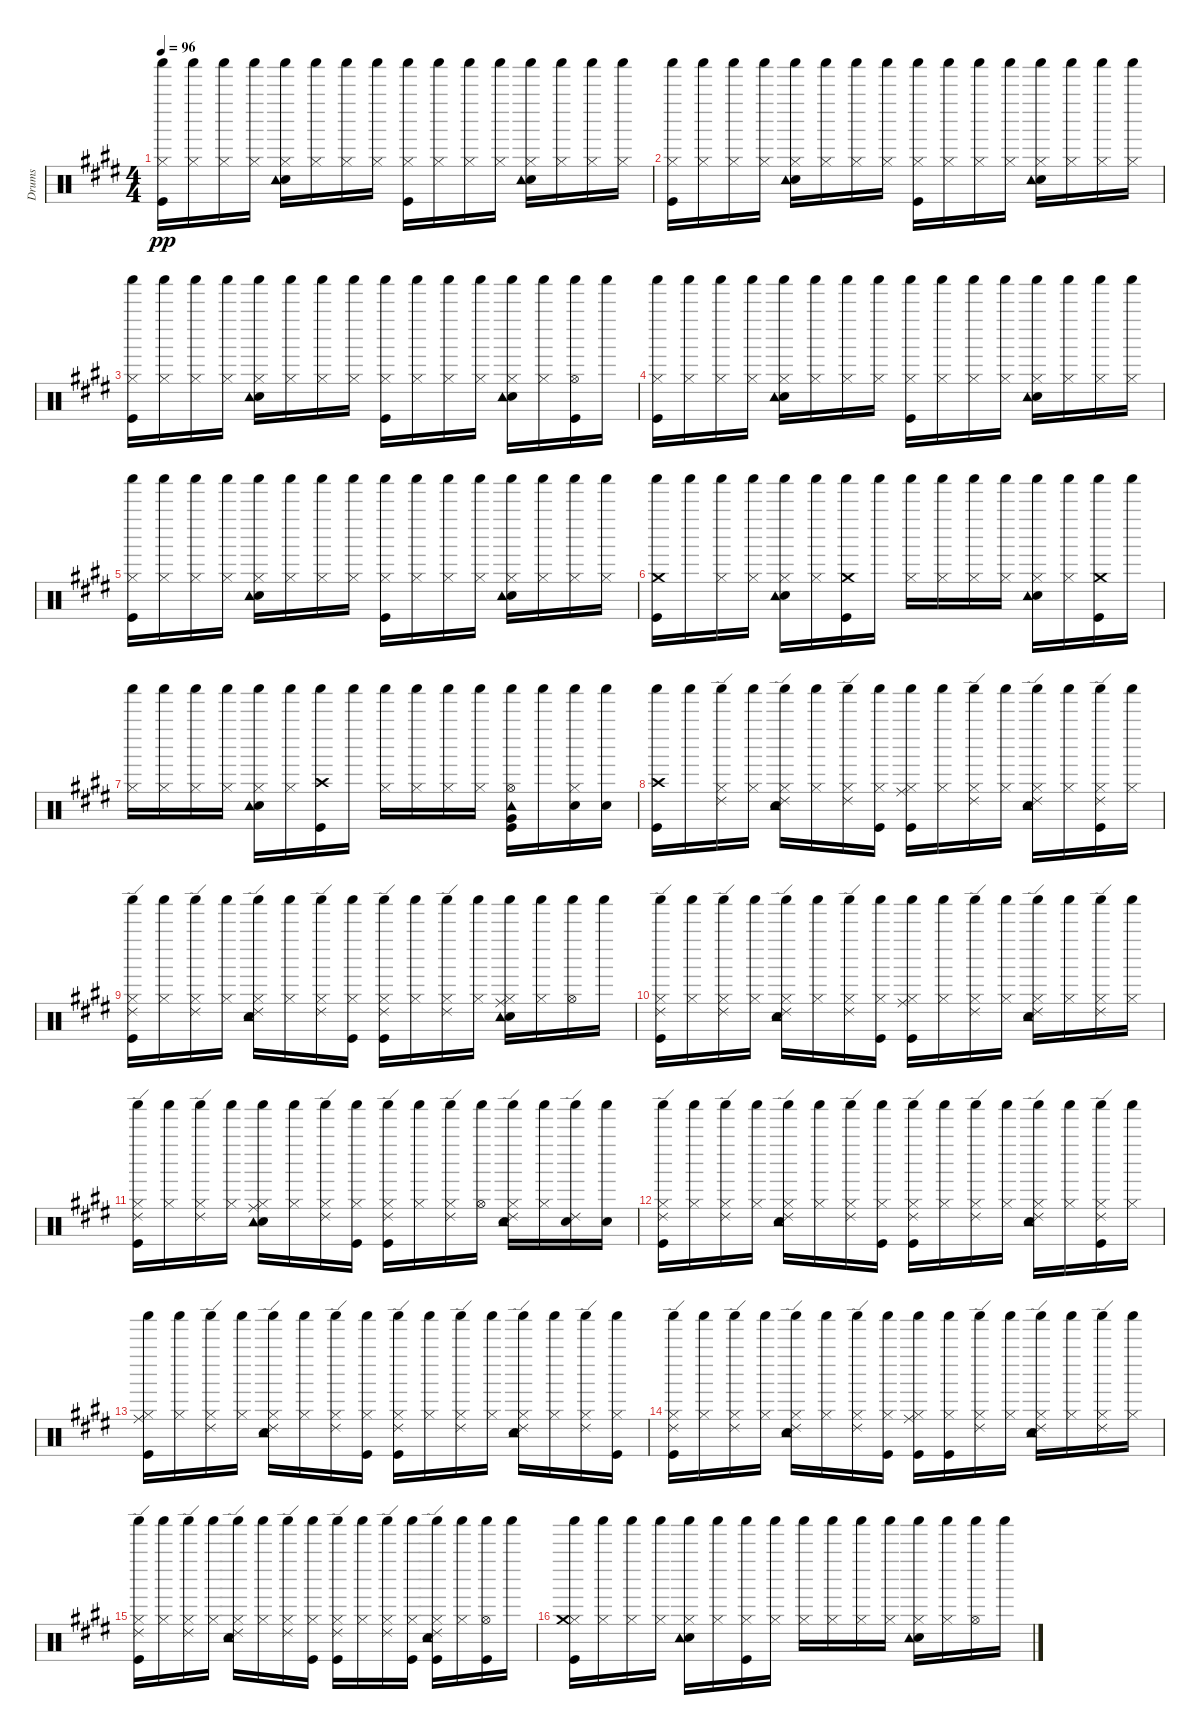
\track ("Drums" "Drums") {instrument percussion}
\staff {score}
\articulation defaults
\ts (4 4)
\tempo 96
\clef neutral
\ks e
("Kick (hit)" "Hi-Hat (closed)" "Shaker (hit)").16{dy pp} ("Hi-Hat (closed)" "Shaker (hit)").16 ("Hi-Hat (closed)" "Shaker (hit)").16 ("Hi-Hat (closed)" "Shaker (hit)").16 ("Electric Snare (hit)" "Hi-Hat (closed)" "Tambourine (hit)" "Shaker (hit)").16 ("Hi-Hat (closed)" "Shaker (hit)").16 ("Hi-Hat (closed)" "Shaker (hit)").16 ("Hi-Hat (closed)" "Shaker (hit)").16 ("Kick (hit)" "Hi-Hat (closed)" "Shaker (hit)").16 ("Hi-Hat (closed)" "Shaker (hit)").16 ("Hi-Hat (closed)" "Shaker (hit)").16 ("Hi-Hat (closed)" "Shaker (hit)").16 ("Electric Snare (hit)" "Hi-Hat (closed)" "Tambourine (hit)" "Shaker (hit)").16 ("Hi-Hat (closed)" "Shaker (hit)").16 ("Hi-Hat (closed)" "Shaker (hit)").16 ("Hi-Hat (closed)" "Shaker (hit)").16 |
("Kick (hit)" "Hi-Hat (closed)" "Shaker (hit)").16 ("Hi-Hat (closed)" "Shaker (hit)").16 ("Hi-Hat (closed)" "Shaker (hit)").16 ("Hi-Hat (closed)" "Shaker (hit)").16 ("Electric Snare (hit)" "Hi-Hat (closed)" "Tambourine (hit)" "Shaker (hit)").16 ("Hi-Hat (closed)" "Shaker (hit)").16 ("Hi-Hat (closed)" "Shaker (hit)").16 ("Hi-Hat (closed)" "Shaker (hit)").16 ("Kick (hit)" "Hi-Hat (closed)" "Shaker (hit)").16 ("Hi-Hat (closed)" "Shaker (hit)").16 ("Hi-Hat (closed)" "Shaker (hit)").16 ("Hi-Hat (closed)" "Shaker (hit)").16 ("Electric Snare (hit)" "Hi-Hat (closed)" "Tambourine (hit)" "Shaker (hit)").16 ("Hi-Hat (closed)" "Shaker (hit)").16 ("Hi-Hat (closed)" "Shaker (hit)").16 ("Hi-Hat (closed)" "Shaker (hit)").16 |
("Kick (hit)" "Hi-Hat (closed)" "Shaker (hit)").16 ("Hi-Hat (closed)" "Shaker (hit)").16 ("Hi-Hat (closed)" "Shaker (hit)").16 ("Hi-Hat (closed)" "Shaker (hit)").16 ("Electric Snare (hit)" "Hi-Hat (closed)" "Tambourine (hit)" "Shaker (hit)").16 ("Hi-Hat (closed)" "Shaker (hit)").16 ("Hi-Hat (closed)" "Shaker (hit)").16 ("Hi-Hat (closed)" "Shaker (hit)").16 ("Kick (hit)" "Hi-Hat (closed)" "Shaker (hit)").16 ("Hi-Hat (closed)" "Shaker (hit)").16 ("Hi-Hat (closed)" "Shaker (hit)").16 ("Hi-Hat (closed)" "Shaker (hit)").16 ("Electric Snare (hit)" "Hi-Hat (closed)" "Tambourine (hit)" "Shaker (hit)").16 ("Hi-Hat (closed)" "Shaker (hit)").16 ("Kick (hit)" "Hi-Hat (open)" "Shaker (hit)").16 "Shaker (hit)".16 |
("Kick (hit)" "Hi-Hat (closed)" "Shaker (hit)").16 ("Hi-Hat (closed)" "Shaker (hit)").16 ("Hi-Hat (closed)" "Shaker (hit)").16 ("Hi-Hat (closed)" "Shaker (hit)").16 ("Electric Snare (hit)" "Hi-Hat (closed)" "Tambourine (hit)" "Shaker (hit)").16 ("Hi-Hat (closed)" "Shaker (hit)").16 ("Hi-Hat (closed)" "Shaker (hit)").16 ("Hi-Hat (closed)" "Shaker (hit)").16 ("Kick (hit)" "Hi-Hat (closed)" "Shaker (hit)").16 ("Hi-Hat (closed)" "Shaker (hit)").16 ("Hi-Hat (closed)" "Shaker (hit)").16 ("Hi-Hat (closed)" "Shaker (hit)").16 ("Electric Snare (hit)" "Hi-Hat (closed)" "Tambourine (hit)" "Shaker (hit)").16 ("Hi-Hat (closed)" "Shaker (hit)").16 ("Hi-Hat (closed)" "Shaker (hit)").16 ("Hi-Hat (closed)" "Shaker (hit)").16 |
("Kick (hit)" "Hi-Hat (closed)" "Shaker (hit)").16 ("Hi-Hat (closed)" "Shaker (hit)").16 ("Hi-Hat (closed)" "Shaker (hit)").16 ("Hi-Hat (closed)" "Shaker (hit)").16 ("Electric Snare (hit)" "Hi-Hat (closed)" "Tambourine (hit)" "Shaker (hit)").16 ("Hi-Hat (closed)" "Shaker (hit)").16 ("Hi-Hat (closed)" "Shaker (hit)").16 ("Hi-Hat (closed)" "Shaker (hit)").16 ("Kick (hit)" "Hi-Hat (closed)" "Shaker (hit)").16 ("Hi-Hat (closed)" "Shaker (hit)").16 ("Hi-Hat (closed)" "Shaker (hit)").16 ("Hi-Hat (closed)" "Shaker (hit)").16 ("Electric Snare (hit)" "Hi-Hat (closed)" "Tambourine (hit)" "Shaker (hit)").16 ("Hi-Hat (closed)" "Shaker (hit)").16 ("Hi-Hat (closed)" "Shaker (hit)").16 ("Hi-Hat (closed)" "Shaker (hit)").16 |
("Kick (hit)" "Crash medium (hit)" "Shaker (hit)").16 "Shaker (hit)".16 ("Hi-Hat (closed)" "Shaker (hit)").16 ("Hi-Hat (closed)" "Shaker (hit)").16 ("Electric Snare (hit)" "Hi-Hat (closed)" "Tambourine (hit)" "Shaker (hit)").16 ("Hi-Hat (closed)" "Shaker (hit)").16 ("Kick (hit)" "Crash medium (hit)" "Shaker (hit)").16 "Shaker (hit)".16 ("Hi-Hat (closed)" "Shaker (hit)").16 ("Hi-Hat (closed)" "Shaker (hit)").16 ("Hi-Hat (closed)" "Shaker (hit)").16 ("Hi-Hat (closed)" "Shaker (hit)").16 ("Electric Snare (hit)" "Hi-Hat (closed)" "Tambourine (hit)" "Shaker (hit)").16 ("Hi-Hat (closed)" "Shaker (hit)").16 ("Kick (hit)" "Crash medium (hit)" "Shaker (hit)").16 "Shaker (hit)".16 |
("Hi-Hat (closed)" "Shaker (hit)").16 ("Hi-Hat (closed)" "Shaker (hit)").16 ("Hi-Hat (closed)" "Shaker (hit)").16 ("Hi-Hat (closed)" "Shaker (hit)").16 ("Electric Snare (hit)" "Hi-Hat (closed)" "Tambourine (hit)" "Shaker (hit)").16 ("Hi-Hat (closed)" "Shaker (hit)").16 ("Kick (hit)" "Crash high (hit)" "Shaker (hit)").16 "Shaker (hit)".16 ("Hi-Hat (closed)" "Shaker (hit)").16 ("Hi-Hat (closed)" "Shaker (hit)").16 ("Hi-Hat (closed)" "Shaker (hit)").16 ("Hi-Hat (closed)" "Shaker (hit)").16 ("Kick (hit)" "Very Low Tom (hit)" "Hi-Hat (open)" "Tambourine (hit)" "Shaker (hit)").16 "Shaker (hit)".16 ("Electric Snare (hit)" "Hi-Hat (closed)" "Shaker (hit)").16 ("Electric Snare (hit)" "Shaker (hit)").16 |
("Kick (hit)" "Crash high (hit)" "Shaker (hit)").16 "Shaker (hit)".16 ("Hi-Hat (closed)" "Ride (edge) 2" "Shaker (hit)").16 ("Hi-Hat (closed)" "Shaker (hit)").16 ("Electric Snare (hit)" "Hi-Hat (closed)" "Tambourine (hit)" "Ride (edge) 2" "Shaker (hit)").16 ("Hi-Hat (closed)" "Shaker (hit)").16 ("Hi-Hat (closed)" "Ride (edge) 2" "Shaker (hit)").16 ("Kick (hit)" "Hi-Hat (closed)" "Shaker (hit)").16 ("Kick (hit)" "Hi-Hat (closed)" "Ride (middle)" "Shaker (hit)").16 ("Hi-Hat (closed)" "Shaker (hit)").16 ("Hi-Hat (closed)" "Ride (edge) 2" "Shaker (hit)").16 ("Hi-Hat (closed)" "Shaker (hit)").16 ("Electric Snare (hit)" "Hi-Hat (closed)" "Tambourine (hit)" "Ride (edge) 2" "Shaker (hit)").16 ("Hi-Hat (closed)" "Shaker (hit)").16 ("Kick (hit)" "Hi-Hat (closed)" "Ride (edge) 2" "Shaker (hit)").16 ("Hi-Hat (closed)" "Shaker (hit)").16 |
("Kick (hit)" "Hi-Hat (closed)" "Ride (edge) 2" "Shaker (hit)").16 ("Hi-Hat (closed)" "Shaker (hit)").16 ("Hi-Hat (closed)" "Ride (edge) 2" "Shaker (hit)").16 ("Hi-Hat (closed)" "Shaker (hit)").16 ("Electric Snare (hit)" "Hi-Hat (closed)" "Tambourine (hit)" "Ride (edge) 2" "Shaker (hit)").16 ("Hi-Hat (closed)" "Shaker (hit)").16 ("Hi-Hat (closed)" "Ride (edge) 2" "Shaker (hit)").16 ("Kick (hit)" "Hi-Hat (closed)" "Shaker (hit)").16 ("Kick (hit)" "Hi-Hat (closed)" "Ride (edge) 2" "Shaker (hit)").16 ("Hi-Hat (closed)" "Shaker (hit)").16 ("Hi-Hat (closed)" "Ride (edge) 2" "Shaker (hit)").16 ("Hi-Hat (closed)" "Shaker (hit)").16 ("Electric Snare (hit)" "Hi-Hat (closed)" "Ride (middle)" "Tambourine (hit)" "Shaker (hit)").16 ("Hi-Hat (closed)" "Shaker (hit)").16 ("Hi-Hat (open)" "Shaker (hit)").16 "Shaker (hit)".16 |
("Kick (hit)" "Hi-Hat (closed)" "Ride (edge) 2" "Shaker (hit)").16 ("Hi-Hat (closed)" "Shaker (hit)").16 ("Hi-Hat (closed)" "Ride (edge) 2" "Shaker (hit)").16 ("Hi-Hat (closed)" "Shaker (hit)").16 ("Electric Snare (hit)" "Hi-Hat (closed)" "Tambourine (hit)" "Ride (edge) 2" "Shaker (hit)").16 ("Hi-Hat (closed)" "Shaker (hit)").16 ("Hi-Hat (closed)" "Ride (edge) 2" "Shaker (hit)").16 ("Kick (hit)" "Hi-Hat (closed)" "Shaker (hit)").16 ("Kick (hit)" "Hi-Hat (closed)" "Ride (middle)" "Shaker (hit)").16 ("Hi-Hat (closed)" "Shaker (hit)").16 ("Hi-Hat (closed)" "Ride (edge) 2" "Shaker (hit)").16 ("Hi-Hat (closed)" "Shaker (hit)").16 ("Electric Snare (hit)" "Hi-Hat (closed)" "Tambourine (hit)" "Ride (edge) 2" "Shaker (hit)").16 ("Hi-Hat (closed)" "Shaker (hit)").16 ("Hi-Hat (closed)" "Ride (edge) 2" "Shaker (hit)").16 ("Hi-Hat (closed)" "Shaker (hit)").16 |
("Kick (hit)" "Hi-Hat (closed)" "Ride (edge) 2" "Shaker (hit)").16 ("Hi-Hat (closed)" "Shaker (hit)").16 ("Hi-Hat (closed)" "Ride (edge) 2" "Shaker (hit)").16 ("Hi-Hat (closed)" "Shaker (hit)").16 ("Electric Snare (hit)" "Hi-Hat (closed)" "Ride (middle)" "Tambourine (hit)" "Shaker (hit)").16 ("Hi-Hat (closed)" "Shaker (hit)").16 ("Hi-Hat (closed)" "Ride (edge) 2" "Shaker (hit)").16 ("Kick (hit)" "Hi-Hat (closed)" "Shaker (hit)").16 ("Kick (hit)" "Hi-Hat (closed)" "Ride (edge) 2" "Shaker (hit)").16 ("Hi-Hat (closed)" "Shaker (hit)").16 ("Hi-Hat (closed)" "Ride (edge) 2" "Shaker (hit)").16 ("Hi-Hat (open)" "Shaker (hit)").16 ("Electric Snare (hit)" "Hi-Hat (closed)" "Tambourine (hit)" "Ride (edge) 2" "Shaker (hit)").16 ("Hi-Hat (closed)" "Shaker (hit)").16 ("Electric Snare (hit)" "Ride (edge) 2" "Shaker (hit)").16 ("Electric Snare (hit)" "Shaker (hit)").16 |
("Kick (hit)" "Hi-Hat (closed)" "Ride (edge) 2" "Shaker (hit)").16 ("Hi-Hat (closed)" "Shaker (hit)").16 ("Hi-Hat (closed)" "Ride (edge) 2" "Shaker (hit)").16 ("Hi-Hat (closed)" "Shaker (hit)").16 ("Electric Snare (hit)" "Hi-Hat (closed)" "Tambourine (hit)" "Ride (edge) 2" "Shaker (hit)").16 ("Hi-Hat (closed)" "Shaker (hit)").16 ("Hi-Hat (closed)" "Ride (edge) 2" "Shaker (hit)").16 ("Kick (hit)" "Hi-Hat (closed)" "Shaker (hit)").16 ("Kick (hit)" "Hi-Hat (closed)" "Ride (edge) 2" "Shaker (hit)").16 ("Hi-Hat (closed)" "Shaker (hit)").16 ("Hi-Hat (closed)" "Ride (edge) 2" "Shaker (hit)").16 ("Hi-Hat (closed)" "Shaker (hit)").16 ("Electric Snare (hit)" "Hi-Hat (closed)" "Tambourine (hit)" "Ride (edge) 2" "Shaker (hit)").16 ("Hi-Hat (closed)" "Shaker (hit)").16 ("Kick (hit)" "Hi-Hat (closed)" "Ride (edge) 2" "Shaker (hit)").16 ("Hi-Hat (closed)" "Shaker (hit)").16 |
("Kick (hit)" "Hi-Hat (closed)" "Ride (middle)" "Shaker (hit)").16 ("Hi-Hat (closed)" "Shaker (hit)").16 ("Hi-Hat (closed)" "Ride (edge) 2" "Shaker (hit)").16 ("Hi-Hat (closed)" "Shaker (hit)").16 ("Electric Snare (hit)" "Hi-Hat (closed)" "Tambourine (hit)" "Ride (edge) 2" "Shaker (hit)").16 ("Hi-Hat (closed)" "Shaker (hit)").16 ("Hi-Hat (closed)" "Ride (edge) 2" "Shaker (hit)").16 ("Kick (hit)" "Hi-Hat (closed)" "Shaker (hit)").16 ("Kick (hit)" "Hi-Hat (closed)" "Ride (edge) 2" "Shaker (hit)").16 ("Hi-Hat (closed)" "Shaker (hit)").16 ("Hi-Hat (closed)" "Ride (edge) 2" "Shaker (hit)").16 ("Hi-Hat (closed)" "Shaker (hit)").16 ("Electric Snare (hit)" "Hi-Hat (closed)" "Tambourine (hit)" "Ride (edge) 2" "Shaker (hit)").16 ("Hi-Hat (closed)" "Shaker (hit)").16 ("Hi-Hat (closed)" "Ride (edge) 2" "Shaker (hit)").16 ("Kick (hit)" "Hi-Hat (closed)" "Shaker (hit)").16 |
("Kick (hit)" "Hi-Hat (closed)" "Ride (edge) 2" "Shaker (hit)").16 ("Hi-Hat (closed)" "Shaker (hit)").16 ("Hi-Hat (closed)" "Ride (edge) 2" "Shaker (hit)").16 ("Hi-Hat (closed)" "Shaker (hit)").16 ("Electric Snare (hit)" "Hi-Hat (closed)" "Tambourine (hit)" "Ride (edge) 2" "Shaker (hit)").16 ("Hi-Hat (closed)" "Shaker (hit)").16 ("Hi-Hat (closed)" "Ride (edge) 2" "Shaker (hit)").16 ("Kick (hit)" "Hi-Hat (closed)" "Shaker (hit)").16 ("Kick (hit)" "Hi-Hat (closed)" "Ride (middle)" "Shaker (hit)").16 ("Kick (hit)" "Hi-Hat (closed)" "Shaker (hit)").16 ("Hi-Hat (closed)" "Ride (edge) 2" "Shaker (hit)").16 ("Hi-Hat (closed)" "Shaker (hit)").16 ("Electric Snare (hit)" "Hi-Hat (closed)" "Tambourine (hit)" "Ride (edge) 2" "Shaker (hit)").16 ("Hi-Hat (closed)" "Shaker (hit)").16 ("Hi-Hat (closed)" "Ride (edge) 2" "Shaker (hit)").16 ("Hi-Hat (closed)" "Shaker (hit)").16 |
("Kick (hit)" "Hi-Hat (closed)" "Ride (edge) 2" "Shaker (hit)").16 ("Hi-Hat (closed)" "Shaker (hit)").16 ("Hi-Hat (closed)" "Ride (edge) 2" "Shaker (hit)").16 ("Hi-Hat (closed)" "Shaker (hit)").16 ("Electric Snare (hit)" "Hi-Hat (closed)" "Tambourine (hit)" "Ride (edge) 2" "Shaker (hit)").16 ("Hi-Hat (closed)" "Shaker (hit)").16 ("Hi-Hat (closed)" "Ride (edge) 2" "Shaker (hit)").16 ("Kick (hit)" "Hi-Hat (closed)" "Shaker (hit)").16 ("Kick (hit)" "Hi-Hat (closed)" "Ride (edge) 2" "Shaker (hit)").16 ("Hi-Hat (closed)" "Shaker (hit)").16 ("Hi-Hat (closed)" "Ride (edge) 2" "Shaker (hit)").16 ("Kick (hit)" "Hi-Hat (closed)" "Shaker (hit)").16 ("Kick (hit)" "Electric Snare (hit)" "Hi-Hat (closed)" "Tambourine (hit)" "Ride (edge) 2" "Shaker (hit)").16 ("Hi-Hat (closed)" "Shaker (hit)").16 ("Kick (hit)" "Hi-Hat (open)" "Shaker (hit)").16 "Shaker (hit)".16 |
("Kick (hit)" "Hi-Hat (closed)" "Crash medium (hit)" "Shaker (hit)").16 ("Hi-Hat (closed)" "Shaker (hit)").16 ("Hi-Hat (closed)" "Shaker (hit)").16 ("Hi-Hat (closed)" "Shaker (hit)").16 ("Electric Snare (hit)" "Hi-Hat (closed)" "Tambourine (hit)" "Shaker (hit)").16 ("Hi-Hat (closed)" "Shaker (hit)").16 ("Kick (hit)" "Hi-Hat (closed)" "Shaker (hit)").16 ("Hi-Hat (closed)" "Shaker (hit)").16 ("Hi-Hat (closed)" "Shaker (hit)").16 ("Hi-Hat (closed)" "Shaker (hit)").16 ("Hi-Hat (closed)" "Shaker (hit)").16 ("Hi-Hat (closed)" "Shaker (hit)").16 ("Electric Snare (hit)" "Hi-Hat (closed)" "Tambourine (hit)" "Shaker (hit)").16 ("Hi-Hat (closed)" "Shaker (hit)").16 ("Hi-Hat (open)" "Shaker (hit)").16 "Shaker (hit)".16
